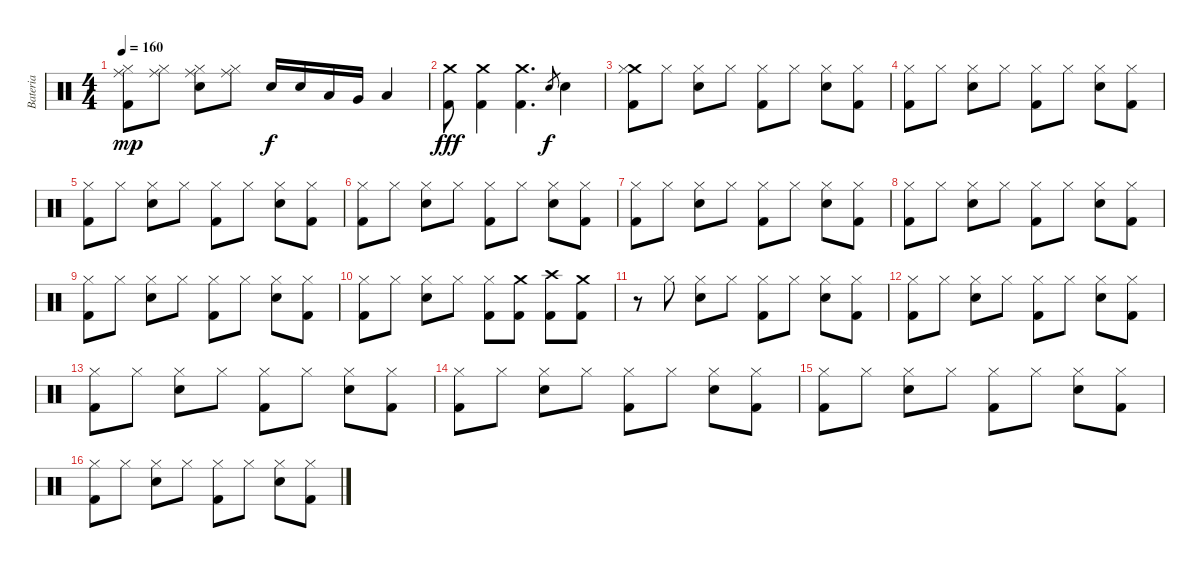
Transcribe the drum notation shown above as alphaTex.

\track ("Bateria" "Bateria") {instrument percussion}
\staff {score}
\articulation defaults
\ts (4 4)
\tempo 160
\clef neutral
\ks c
("Hi-Hat (closed)" "Kick (hit) 2" "Ride (middle)").8{dy mp} ("Hi-Hat (closed)" "Ride (middle)").8 ("Hi-Hat (closed)" "Electric Snare (hit)" "Ride (middle)").8 ("Hi-Hat (closed)" "Ride (middle)").8 "Electric Snare (hit)".16{dy f} "Electric Snare (hit)".16 "Low Tom (hit)".16 "Very Low Tom (hit)".16 "Low Tom (hit)".4 |
("Crash medium (hit)" "Kick (hit) 2").8{dy fff} ("Crash medium (hit)" "Kick (hit) 2").4 ("Crash medium (hit)" "Kick (hit) 2").4{d} "Electric Snare (hit)".8{gr dy f} "Electric Snare (hit)".4 |
("Crash medium (hit)" "Hi-Hat (closed)" "Kick (hit) 2").8 "Hi-Hat (closed)".8 ("Hi-Hat (closed)" "Electric Snare (hit)").8 "Hi-Hat (closed)".8 ("Hi-Hat (closed)" "Kick (hit) 2").8 "Hi-Hat (closed)".8 ("Hi-Hat (closed)" "Electric Snare (hit)").8 ("Hi-Hat (closed)" "Kick (hit) 2").8 |
("Hi-Hat (closed)" "Kick (hit) 2").8 "Hi-Hat (closed)".8 ("Hi-Hat (closed)" "Electric Snare (hit)").8 "Hi-Hat (closed)".8 ("Hi-Hat (closed)" "Kick (hit) 2").8 "Hi-Hat (closed)".8 ("Hi-Hat (closed)" "Electric Snare (hit)").8 ("Hi-Hat (closed)" "Kick (hit) 2").8 |
("Hi-Hat (closed)" "Kick (hit) 2").8 "Hi-Hat (closed)".8 ("Hi-Hat (closed)" "Electric Snare (hit)").8 "Hi-Hat (closed)".8 ("Hi-Hat (closed)" "Kick (hit) 2").8 "Hi-Hat (closed)".8 ("Hi-Hat (closed)" "Electric Snare (hit)").8 ("Hi-Hat (closed)" "Kick (hit) 2").8 |
("Hi-Hat (closed)" "Kick (hit) 2").8 "Hi-Hat (closed)".8 ("Hi-Hat (closed)" "Electric Snare (hit)").8 "Hi-Hat (closed)".8 ("Hi-Hat (closed)" "Kick (hit) 2").8 "Hi-Hat (closed)".8 ("Hi-Hat (closed)" "Electric Snare (hit)").8 ("Hi-Hat (closed)" "Kick (hit) 2").8 |
("Hi-Hat (closed)" "Kick (hit) 2").8 "Hi-Hat (closed)".8 ("Hi-Hat (closed)" "Electric Snare (hit)").8 "Hi-Hat (closed)".8 ("Hi-Hat (closed)" "Kick (hit) 2").8 "Hi-Hat (closed)".8 ("Hi-Hat (closed)" "Electric Snare (hit)").8 ("Hi-Hat (closed)" "Kick (hit) 2").8 |
("Hi-Hat (closed)" "Kick (hit) 2").8 "Hi-Hat (closed)".8 ("Hi-Hat (closed)" "Electric Snare (hit)").8 "Hi-Hat (closed)".8 ("Hi-Hat (closed)" "Kick (hit) 2").8 "Hi-Hat (closed)".8 ("Hi-Hat (closed)" "Electric Snare (hit)").8 ("Hi-Hat (closed)" "Kick (hit) 2").8 |
("Hi-Hat (closed)" "Kick (hit) 2").8 "Hi-Hat (closed)".8 ("Hi-Hat (closed)" "Electric Snare (hit)").8 "Hi-Hat (closed)".8 ("Hi-Hat (closed)" "Kick (hit) 2").8 "Hi-Hat (closed)".8 ("Hi-Hat (closed)" "Electric Snare (hit)").8 ("Hi-Hat (closed)" "Kick (hit) 2").8 |
("Hi-Hat (closed)" "Kick (hit) 2").8 "Hi-Hat (closed)".8 ("Hi-Hat (closed)" "Electric Snare (hit)").8 "Hi-Hat (closed)".8 ("Hi-Hat (closed)" "Kick (hit) 2").8 ("Crash medium (hit)" "Kick (hit) 2").8 ("Crash high (hit)" "Kick (hit) 2").8 ("Crash medium (hit)" "Kick (hit) 2").8 |
r.8 "Hi-Hat (closed)".8 ("Hi-Hat (closed)" "Electric Snare (hit)").8 "Hi-Hat (closed)".8 ("Hi-Hat (closed)" "Kick (hit) 2").8 "Hi-Hat (closed)".8 ("Hi-Hat (closed)" "Electric Snare (hit)").8 ("Hi-Hat (closed)" "Kick (hit) 2").8 |
("Hi-Hat (closed)" "Kick (hit) 2").8 "Hi-Hat (closed)".8 ("Hi-Hat (closed)" "Electric Snare (hit)").8 "Hi-Hat (closed)".8 ("Hi-Hat (closed)" "Kick (hit) 2").8 "Hi-Hat (closed)".8 ("Hi-Hat (closed)" "Electric Snare (hit)").8 ("Hi-Hat (closed)" "Kick (hit) 2").8 |
("Hi-Hat (closed)" "Kick (hit) 2").8 "Hi-Hat (closed)".8 ("Hi-Hat (closed)" "Electric Snare (hit)").8 "Hi-Hat (closed)".8 ("Hi-Hat (closed)" "Kick (hit) 2").8 "Hi-Hat (closed)".8 ("Hi-Hat (closed)" "Electric Snare (hit)").8 ("Hi-Hat (closed)" "Kick (hit) 2").8 |
("Hi-Hat (closed)" "Kick (hit) 2").8 "Hi-Hat (closed)".8 ("Hi-Hat (closed)" "Electric Snare (hit)").8 "Hi-Hat (closed)".8 ("Hi-Hat (closed)" "Kick (hit) 2").8 "Hi-Hat (closed)".8 ("Hi-Hat (closed)" "Electric Snare (hit)").8 ("Hi-Hat (closed)" "Kick (hit) 2").8 |
("Hi-Hat (closed)" "Kick (hit) 2").8 "Hi-Hat (closed)".8 ("Hi-Hat (closed)" "Electric Snare (hit)").8 "Hi-Hat (closed)".8 ("Hi-Hat (closed)" "Kick (hit) 2").8 "Hi-Hat (closed)".8 ("Hi-Hat (closed)" "Electric Snare (hit)").8 ("Hi-Hat (closed)" "Kick (hit) 2").8 |
("Hi-Hat (closed)" "Kick (hit) 2").8 "Hi-Hat (closed)".8 ("Hi-Hat (closed)" "Electric Snare (hit)").8 "Hi-Hat (closed)".8 ("Hi-Hat (closed)" "Kick (hit) 2").8 "Hi-Hat (closed)".8 ("Hi-Hat (closed)" "Electric Snare (hit)").8 ("Hi-Hat (closed)" "Kick (hit) 2").8
